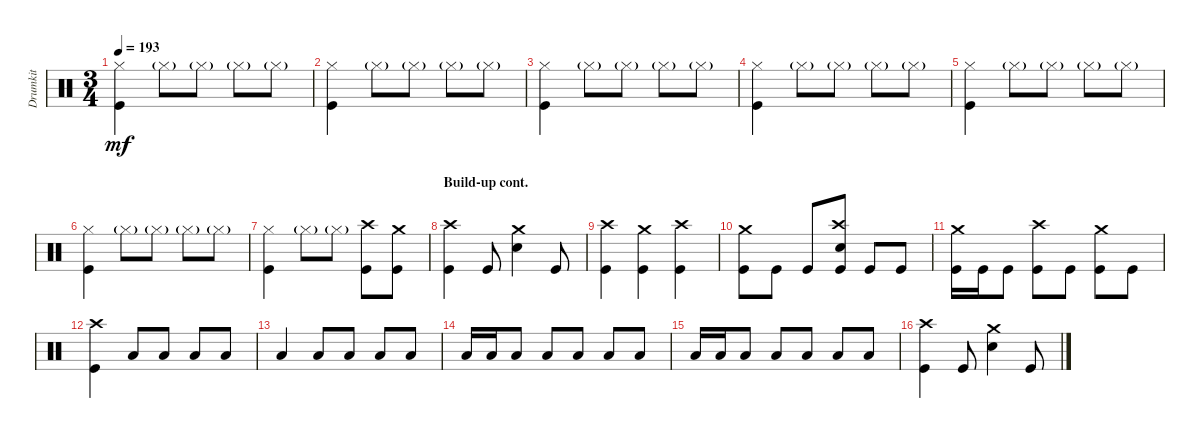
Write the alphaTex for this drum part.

\track ("Drumkit" "Drumkit") {instrument percussion}
\staff {score}
\articulation defaults
\ts (3 4)
\tempo 193
\clef neutral
\ks c
("Hi-Hat (closed)" "Kick (hit)").4{dy mf} "Hi-Hat (closed)"{g}.8 "Hi-Hat (closed)"{g}.8 "Hi-Hat (closed)"{g}.8 "Hi-Hat (closed)"{g}.8 |
("Hi-Hat (closed)" "Kick (hit)").4 "Hi-Hat (closed)"{g}.8 "Hi-Hat (closed)"{g}.8 "Hi-Hat (closed)"{g}.8 "Hi-Hat (closed)"{g}.8 |
("Hi-Hat (closed)" "Kick (hit)").4 "Hi-Hat (closed)"{g}.8 "Hi-Hat (closed)"{g}.8 "Hi-Hat (closed)"{g}.8 "Hi-Hat (closed)"{g}.8 |
("Hi-Hat (closed)" "Kick (hit)").4 "Hi-Hat (closed)"{g}.8 "Hi-Hat (closed)"{g}.8 "Hi-Hat (closed)"{g}.8 "Hi-Hat (closed)"{g}.8 |
("Hi-Hat (closed)" "Kick (hit)").4 "Hi-Hat (closed)"{g}.8 "Hi-Hat (closed)"{g}.8 "Hi-Hat (closed)"{g}.8 "Hi-Hat (closed)"{g}.8 |
("Hi-Hat (closed)" "Kick (hit)").4 "Hi-Hat (closed)"{g}.8 "Hi-Hat (closed)"{g}.8 "Hi-Hat (closed)"{g}.8 "Hi-Hat (closed)"{g}.8 |
("Hi-Hat (closed)" "Kick (hit)").4 "Hi-Hat (closed)"{g}.8 "Hi-Hat (closed)"{g}.8 ("Crash high (hit)" "Kick (hit)").8 ("Crash medium (hit)" "Kick (hit)").8 |
\section ("" "Build-up cont.")
("Kick (hit)" "Crash high (hit)").4 "Kick (hit)".8 ("Snare (hit) 2" "Crash medium (hit)").4 "Kick (hit)".8 |
("Kick (hit)" "Crash high (hit)").4 ("Kick (hit)" "Crash medium (hit)").4 ("Kick (hit)" "Crash high (hit)").4 |
("Kick (hit)" "Crash medium (hit)").8 "Kick (hit)".8 "Kick (hit)".8 ("Kick (hit)" "Crash high (hit)" "Snare (hit) 2").8 "Kick (hit)".8 "Kick (hit)".8 |
("Kick (hit)" "Crash medium (hit)").16 "Kick (hit)".16 "Kick (hit)".8 ("Kick (hit)" "Crash high (hit)").8 "Kick (hit)".8 ("Kick (hit)" "Crash medium (hit)").8 "Kick (hit)".8 |
("Kick (hit)" "Crash high (hit)").4 "Low Floor Tom (hit)".8 "Low Floor Tom (hit)".8 "Low Floor Tom (hit)".8 "Low Floor Tom (hit)".8 |
"Low Floor Tom (hit)".4 "Low Floor Tom (hit)".8 "Low Floor Tom (hit)".8 "Low Floor Tom (hit)".8 "Low Floor Tom (hit)".8 |
"Low Floor Tom (hit)".16 "Low Floor Tom (hit)".16 "Low Floor Tom (hit)".8 "Low Floor Tom (hit)".8 "Low Floor Tom (hit)".8 "Low Floor Tom (hit)".8 "Low Floor Tom (hit)".8 |
"Low Floor Tom (hit)".16 "Low Floor Tom (hit)".16 "Low Floor Tom (hit)".8 "Low Floor Tom (hit)".8 "Low Floor Tom (hit)".8 "Low Floor Tom (hit)".8 "Low Floor Tom (hit)".8 |
("Kick (hit)" "Crash high (hit)").4 "Kick (hit)".8 ("Snare (hit) 2" "Crash medium (hit)").4 "Kick (hit)".8
